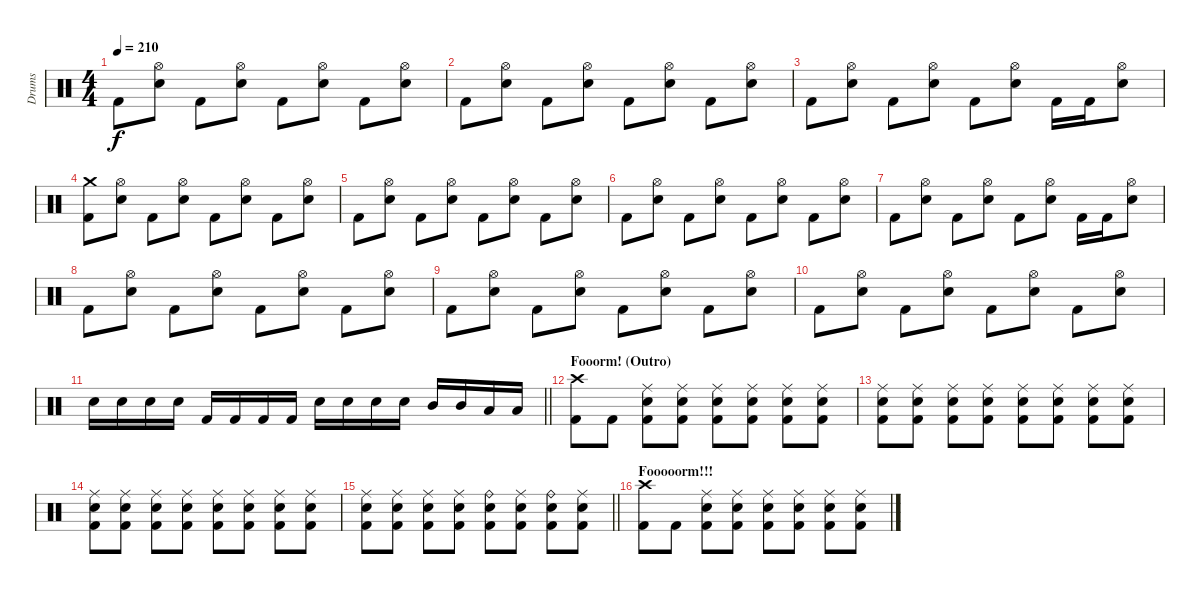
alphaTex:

\track ("Drums" "Drums") {instrument percussion}
\staff {score}
\articulation defaults
\ts (4 4)
\tempo 210
\clef neutral
\ks c "Kick (hit) 2".8{dy f}
("Hi-Hat (open)" "Snare (hit) 2").8 "Kick (hit) 2".8 ("Hi-Hat (open)" "Snare (hit) 2").8 "Kick (hit) 2".8 ("Hi-Hat (open)" "Snare (hit) 2").8 "Kick (hit) 2".8 ("Hi-Hat (open)" "Snare (hit) 2").8 |
"Kick (hit) 2".8 ("Hi-Hat (open)" "Snare (hit) 2").8 "Kick (hit) 2".8 ("Hi-Hat (open)" "Snare (hit) 2").8 "Kick (hit) 2".8 ("Hi-Hat (open)" "Snare (hit) 2").8 "Kick (hit) 2".8 ("Hi-Hat (open)" "Snare (hit) 2").8 |
"Kick (hit) 2".8 ("Hi-Hat (open)" "Snare (hit) 2").8 "Kick (hit) 2".8 ("Hi-Hat (open)" "Snare (hit) 2").8 "Kick (hit) 2".8 ("Hi-Hat (open)" "Snare (hit) 2").8 "Kick (hit) 2".16 "Kick (hit) 2".16 ("Hi-Hat (open)" "Snare (hit) 2").8 |
("Crash medium (hit)" "Kick (hit) 2").8 ("Hi-Hat (open)" "Snare (hit) 2").8 "Kick (hit) 2".8 ("Hi-Hat (open)" "Snare (hit) 2").8 "Kick (hit) 2".8 ("Hi-Hat (open)" "Snare (hit) 2").8 "Kick (hit) 2".8 ("Hi-Hat (open)" "Snare (hit) 2").8 |
"Kick (hit) 2".8 ("Hi-Hat (open)" "Snare (hit) 2").8 "Kick (hit) 2".8 ("Hi-Hat (open)" "Snare (hit) 2").8 "Kick (hit) 2".8 ("Hi-Hat (open)" "Snare (hit) 2").8 "Kick (hit) 2".8 ("Hi-Hat (open)" "Snare (hit) 2").8 |
"Kick (hit) 2".8 ("Hi-Hat (open)" "Snare (hit) 2").8 "Kick (hit) 2".8 ("Hi-Hat (open)" "Snare (hit) 2").8 "Kick (hit) 2".8 ("Hi-Hat (open)" "Snare (hit) 2").8 "Kick (hit) 2".8 ("Hi-Hat (open)" "Snare (hit) 2").8 |
"Kick (hit) 2".8 ("Hi-Hat (open)" "Snare (hit) 2").8 "Kick (hit) 2".8 ("Hi-Hat (open)" "Snare (hit) 2").8 "Kick (hit) 2".8 ("Hi-Hat (open)" "Snare (hit) 2").8 "Kick (hit) 2".16 "Kick (hit) 2".16 ("Hi-Hat (open)" "Snare (hit) 2").8 |
"Kick (hit) 2".8 ("Hi-Hat (open)" "Snare (hit) 2").8 "Kick (hit) 2".8 ("Hi-Hat (open)" "Snare (hit) 2").8 "Kick (hit) 2".8 ("Hi-Hat (open)" "Snare (hit) 2").8 "Kick (hit) 2".8 ("Hi-Hat (open)" "Snare (hit) 2").8 |
"Kick (hit) 2".8 ("Hi-Hat (open)" "Snare (hit) 2").8 "Kick (hit) 2".8 ("Hi-Hat (open)" "Snare (hit) 2").8 "Kick (hit) 2".8 ("Hi-Hat (open)" "Snare (hit) 2").8 "Kick (hit) 2".8 ("Hi-Hat (open)" "Snare (hit) 2").8 |
"Kick (hit) 2".8 ("Hi-Hat (open)" "Snare (hit) 2").8 "Kick (hit) 2".8 ("Hi-Hat (open)" "Snare (hit) 2").8 "Kick (hit) 2".8 ("Hi-Hat (open)" "Snare (hit) 2").8 "Kick (hit) 2".8 ("Hi-Hat (open)" "Snare (hit) 2").8 |
\barLineRight lightlight "Snare (hit) 2".16 "Snare (hit) 2".16 "Snare (hit) 2".16 "Snare (hit) 2".16 "Kick (hit) 2".16 "Kick (hit) 2".16 "Kick (hit) 2".16 "Kick (hit) 2".16 "Snare (hit) 2".16 "Snare (hit) 2".16 "Snare (hit) 2".16 "Snare (hit) 2".16 "Mid Tom (hit)".16 "Mid Tom (hit)".16 "Low Tom (hit)".16 "Low Tom (hit)".16
|
\section ("" "Fooorm! (Outro)")
("Crash high (hit)" "Kick (hit) 2").8 "Kick (hit) 2".8 ("Ride (middle)" "Snare (hit) 2" "Kick (hit) 2").8 ("Ride (middle)" "Snare (hit) 2" "Kick (hit) 2").8 ("Ride (middle)" "Snare (hit) 2" "Kick (hit) 2").8 ("Ride (middle)" "Snare (hit) 2" "Kick (hit) 2").8 ("Ride (middle)" "Snare (hit) 2" "Kick (hit) 2").8 ("Ride (middle)" "Snare (hit) 2" "Kick (hit) 2").8 |
("Ride (middle)" "Snare (hit) 2" "Kick (hit) 2").8 ("Ride (middle)" "Snare (hit) 2" "Kick (hit) 2").8 ("Ride (middle)" "Snare (hit) 2" "Kick (hit) 2").8 ("Ride (middle)" "Snare (hit) 2" "Kick (hit) 2").8 ("Ride (middle)" "Snare (hit) 2" "Kick (hit) 2").8 ("Ride (middle)" "Snare (hit) 2" "Kick (hit) 2").8 ("Ride (middle)" "Snare (hit) 2" "Kick (hit) 2").8 ("Ride (middle)" "Snare (hit) 2" "Kick (hit) 2").8 |
("Ride (middle)" "Snare (hit) 2" "Kick (hit) 2").8 ("Ride (middle)" "Snare (hit) 2" "Kick (hit) 2").8 ("Ride (middle)" "Snare (hit) 2" "Kick (hit) 2").8 ("Ride (middle)" "Snare (hit) 2" "Kick (hit) 2").8 ("Ride (middle)" "Snare (hit) 2" "Kick (hit) 2").8 ("Ride (middle)" "Snare (hit) 2" "Kick (hit) 2").8 ("Ride (middle)" "Snare (hit) 2" "Kick (hit) 2").8 ("Ride (middle)" "Snare (hit) 2" "Kick (hit) 2").8 |
\barLineRight lightlight
("Ride (middle)" "Snare (hit) 2" "Kick (hit) 2").8 ("Ride (middle)" "Snare (hit) 2" "Kick (hit) 2").8 ("Ride (middle)" "Snare (hit) 2" "Kick (hit) 2").8 ("Ride (middle)" "Snare (hit) 2" "Kick (hit) 2").8 ("Ride (bell)" "Snare (hit) 2" "Kick (hit) 2").8 ("Ride (middle)" "Snare (hit) 2" "Kick (hit) 2").8 ("Ride (bell)" "Snare (hit) 2" "Kick (hit) 2").8 ("Ride (middle)" "Snare (hit) 2" "Kick (hit) 2").8 |
\section ("" "Fooooorm!!!")
("Crash high (hit)" "Kick (hit) 2").8 "Kick (hit) 2".8 ("Ride (middle)" "Snare (hit) 2" "Kick (hit) 2").8 ("Ride (middle)" "Snare (hit) 2" "Kick (hit) 2").8 ("Ride (middle)" "Snare (hit) 2" "Kick (hit) 2").8 ("Ride (middle)" "Snare (hit) 2" "Kick (hit) 2").8 ("Ride (middle)" "Snare (hit) 2" "Kick (hit) 2").8 ("Ride (middle)" "Snare (hit) 2" "Kick (hit) 2").8
